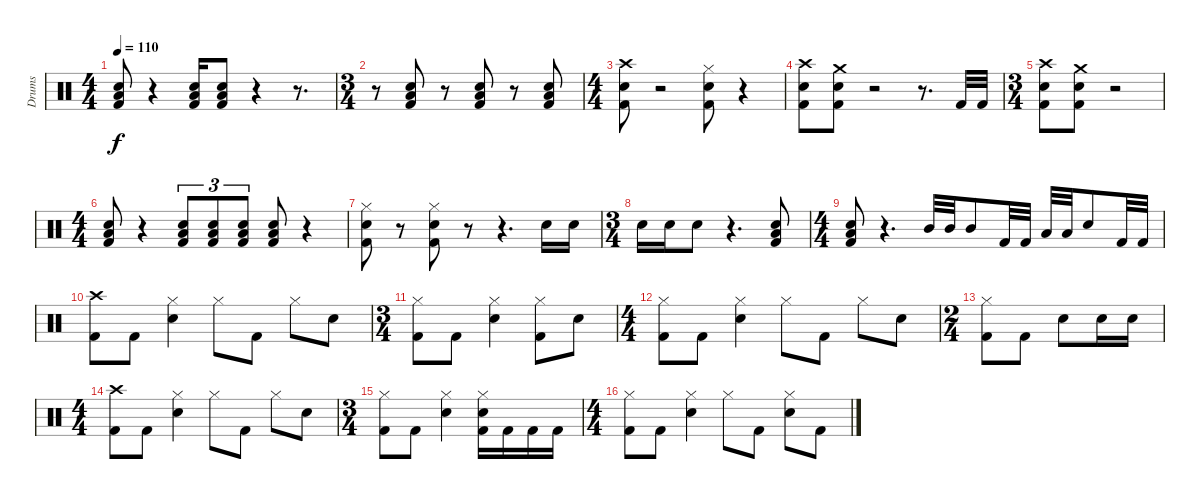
\track ("Drums" "Drums") {instrument percussion}
\staff {score}
\articulation defaults
\ts (4 4)
\tempo 110
\clef neutral
\ks c
("Kick (hit) 2" "Low Floor Tom (hit)" "Electric Snare (hit)").8{dy f} r.4 ("Kick (hit) 2" "Low Floor Tom (hit)" "Electric Snare (hit)").16 ("Kick (hit) 2" "Low Floor Tom (hit)" "Electric Snare (hit)").8 r.4 r.8{d} |
\ts (3 4)
r.8 ("Kick (hit) 2" "Low Floor Tom (hit)" "Electric Snare (hit)").8 r.8 ("Kick (hit) 2" "Low Floor Tom (hit)" "Electric Snare (hit)").8 r.8 ("Kick (hit) 2" "Low Floor Tom (hit)" "Electric Snare (hit)").8 |
\ts (4 4)
("Kick (hit) 2" "Crash high (hit)" "Electric Snare (hit)").8 r.2 ("Kick (hit) 2" "Hi-Hat (closed)" "Electric Snare (hit)").8 r.4 |
("Kick (hit) 2" "Crash high (hit)" "Electric Snare (hit)").8 ("Kick (hit) 2" "Crash medium (hit)" "Electric Snare (hit)").8 r.2 r.8{d} "Kick (hit) 2".32 "Kick (hit) 2".32 |
\ts (3 4)
("Kick (hit) 2" "Crash high (hit)" "Electric Snare (hit)").8 ("Kick (hit) 2" "Crash medium (hit)" "Electric Snare (hit)").8 r.2 |
\ts (4 4)
("Kick (hit) 2" "Low Floor Tom (hit)" "Electric Snare (hit)").8 r.4 ("Kick (hit) 2" "Low Floor Tom (hit)" "Electric Snare (hit)").8{tu (3 2)} ("Kick (hit) 2" "Low Floor Tom (hit)" "Electric Snare (hit)").8{tu (3 2)} ("Kick (hit) 2" "Low Floor Tom (hit)" "Electric Snare (hit)").8{tu (3 2)} ("Kick (hit) 2" "Low Floor Tom (hit)" "Electric Snare (hit)").8 r.4 |
("Kick (hit) 2" "Hi-Hat (closed)" "Electric Snare (hit)").8 r.8 ("Kick (hit) 2" "Hi-Hat (closed)" "Electric Snare (hit)").8 r.8 r.4{d} "Electric Snare (hit)".16 "Electric Snare (hit)".16 |
\ts (3 4)
"Electric Snare (hit)".16 "Electric Snare (hit)".16 "Electric Snare (hit)".8 r.4{d} ("Kick (hit) 2" "Low Floor Tom (hit)" "Electric Snare (hit)").8 |
\ts (4 4)
("Kick (hit) 2" "Low Floor Tom (hit)" "Electric Snare (hit)").8 r.4{d} "Mid Tom (hit)".32 "Mid Tom (hit)".32 "Mid Tom (hit)".8 "Kick (hit) 2".32 "Kick (hit) 2".32 "Low Tom (hit)".32 "Low Tom (hit)".32 "Electric Snare (hit)".8 "Kick (hit) 2".32 "Kick (hit) 2".32 |
("Kick (hit) 2" "Crash high (hit)").8 "Kick (hit) 2".8 ("Hi-Hat (closed)" "Electric Snare (hit)").4 "Hi-Hat (closed)".8 "Kick (hit) 2".8 "Hi-Hat (closed)".8 "Electric Snare (hit)".8 |
\ts (3 4)
("Kick (hit) 2" "Hi-Hat (closed)").8 "Kick (hit) 2".8 ("Hi-Hat (closed)" "Electric Snare (hit)").4 ("Kick (hit) 2" "Hi-Hat (closed)").8 "Electric Snare (hit)".8 |
\ts (4 4)
("Kick (hit) 2" "Hi-Hat (closed)").8 "Kick (hit) 2".8 ("Hi-Hat (closed)" "Electric Snare (hit)").4 "Hi-Hat (closed)".8 "Kick (hit) 2".8 "Hi-Hat (closed)".8 "Electric Snare (hit)".8 |
\ts (2 4)
("Kick (hit) 2" "Hi-Hat (closed)").8 "Kick (hit) 2".8 "Electric Snare (hit)".8 "Electric Snare (hit)".16 "Electric Snare (hit)".16 |
\ts (4 4)
("Kick (hit) 2" "Crash high (hit)").8 "Kick (hit) 2".8 ("Hi-Hat (closed)" "Electric Snare (hit)").4 "Hi-Hat (closed)".8 "Kick (hit) 2".8 "Hi-Hat (closed)".8 "Electric Snare (hit)".8 |
\ts (3 4)
("Kick (hit) 2" "Hi-Hat (closed)").8 "Kick (hit) 2".8 ("Hi-Hat (closed)" "Electric Snare (hit)").4 ("Kick (hit) 2" "Hi-Hat (closed)" "Electric Snare (hit)").16 "Kick (hit) 2".16 "Kick (hit) 2".16 "Kick (hit) 2".16 |
\ts (4 4)
("Kick (hit) 2" "Hi-Hat (closed)").8 "Kick (hit) 2".8 ("Hi-Hat (closed)" "Electric Snare (hit)").4 "Hi-Hat (closed)".8 "Kick (hit) 2".8 ("Hi-Hat (closed)" "Electric Snare (hit)").8 "Kick (hit) 2".8
